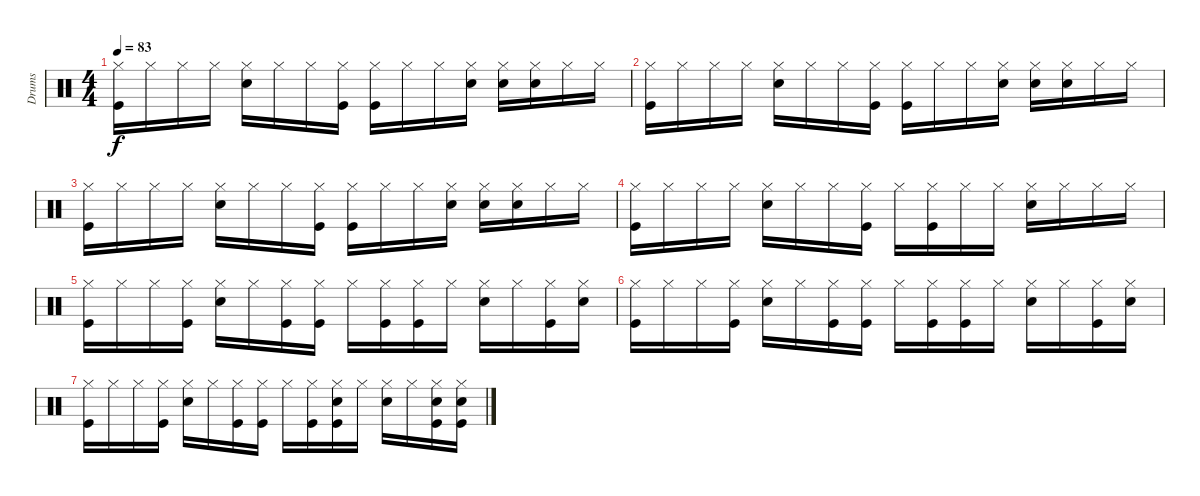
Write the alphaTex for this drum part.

\track ("Drums" "Drums") {instrument percussion}
\staff {score}
\articulation defaults
\ts (4 4)
\tempo 83
\clef neutral
\ks c
("Hi-Hat (closed)" "Kick (hit)").16{dy f} "Hi-Hat (closed)".16 "Hi-Hat (closed)".16 "Hi-Hat (closed)".16 ("Hi-Hat (closed)" "Snare (hit) 2").16 "Hi-Hat (closed)".16 "Hi-Hat (closed)".16 ("Hi-Hat (closed)" "Kick (hit)").16 ("Hi-Hat (closed)" "Kick (hit)").16 "Hi-Hat (closed)".16 "Hi-Hat (closed)".16 ("Hand Clap (hit)" "Hi-Hat (closed)").16 ("Hi-Hat (closed)" "Snare (hit) 2").16 ("Hand Clap (hit)" "Hi-Hat (closed)").16 "Hi-Hat (closed)".16 "Hi-Hat (closed)".16 |
("Hi-Hat (closed)" "Kick (hit)").16 "Hi-Hat (closed)".16 "Hi-Hat (closed)".16 "Hi-Hat (closed)".16 ("Hi-Hat (closed)" "Snare (hit) 2").16 "Hi-Hat (closed)".16 "Hi-Hat (closed)".16 ("Hi-Hat (closed)" "Kick (hit)").16 ("Hi-Hat (closed)" "Kick (hit)").16 "Hi-Hat (closed)".16 "Hi-Hat (closed)".16 ("Hand Clap (hit)" "Hi-Hat (closed)").16 ("Hi-Hat (closed)" "Snare (hit) 2").16 ("Hand Clap (hit)" "Hi-Hat (closed)").16 "Hi-Hat (closed)".16 "Hi-Hat (closed)".16 |
("Hi-Hat (closed)" "Kick (hit)").16 "Hi-Hat (closed)".16 "Hi-Hat (closed)".16 "Hi-Hat (closed)".16 ("Hi-Hat (closed)" "Snare (hit) 2").16 "Hi-Hat (closed)".16 "Hi-Hat (closed)".16 ("Hi-Hat (closed)" "Kick (hit)").16 ("Hi-Hat (closed)" "Kick (hit)").16 "Hi-Hat (closed)".16 "Hi-Hat (closed)".16 ("Hand Clap (hit)" "Hi-Hat (closed)").16 ("Hi-Hat (closed)" "Snare (hit) 2").16 ("Hand Clap (hit)" "Hi-Hat (closed)").16 "Hi-Hat (closed)".16 "Hi-Hat (closed)".16 |
("Hi-Hat (closed)" "Kick (hit)").16 "Hi-Hat (closed)".16 "Hi-Hat (closed)".16 "Hi-Hat (closed)".16 ("Hi-Hat (closed)" "Snare (hit) 2").16 "Hi-Hat (closed)".16 "Hi-Hat (closed)".16 ("Hi-Hat (closed)" "Kick (hit)").16 "Hi-Hat (closed)".16 ("Hi-Hat (closed)" "Kick (hit)").16 "Hi-Hat (closed)".16 "Hi-Hat (closed)".16 ("Hi-Hat (closed)" "Snare (hit) 2").16 "Hi-Hat (closed)".16 "Hi-Hat (closed)".16 "Hi-Hat (closed)".16 |
("Hi-Hat (closed)" "Kick (hit)").16 "Hi-Hat (closed)".16 "Hi-Hat (closed)".16 ("Hi-Hat (closed)" "Kick (hit)").16 ("Hi-Hat (closed)" "Snare (hit) 2").16 "Hi-Hat (closed)".16 ("Hi-Hat (closed)" "Kick (hit)").16 ("Hi-Hat (closed)" "Kick (hit)").16 "Hi-Hat (closed)".16 ("Hi-Hat (closed)" "Kick (hit)").16 ("Hi-Hat (closed)" "Kick (hit)").16 "Hi-Hat (closed)".16 ("Hi-Hat (closed)" "Snare (hit) 2").16 "Hi-Hat (closed)".16 ("Hi-Hat (closed)" "Kick (hit)").16 ("Hi-Hat (closed)" "Snare (hit) 2").16 |
("Hi-Hat (closed)" "Kick (hit)").16 "Hi-Hat (closed)".16 "Hi-Hat (closed)".16 ("Hi-Hat (closed)" "Kick (hit)").16 ("Hi-Hat (closed)" "Snare (hit) 2").16 "Hi-Hat (closed)".16 ("Hi-Hat (closed)" "Kick (hit)").16 ("Hi-Hat (closed)" "Kick (hit)").16 "Hi-Hat (closed)".16 ("Hi-Hat (closed)" "Kick (hit)").16 ("Hi-Hat (closed)" "Kick (hit)").16 "Hi-Hat (closed)".16 ("Hi-Hat (closed)" "Snare (hit) 2").16 "Hi-Hat (closed)".16 ("Hi-Hat (closed)" "Kick (hit)").16 ("Hi-Hat (closed)" "Snare (hit) 2").16 |
("Hi-Hat (closed)" "Kick (hit)").16 "Hi-Hat (closed)".16 "Hi-Hat (closed)".16 ("Hi-Hat (closed)" "Kick (hit)").16 ("Hi-Hat (closed)" "Snare (hit) 2").16 "Hi-Hat (closed)".16 ("Hi-Hat (closed)" "Kick (hit)").16 ("Hi-Hat (closed)" "Kick (hit)").16 "Hi-Hat (closed)".16 ("Hi-Hat (closed)" "Kick (hit)").16 ("Hand Clap (hit)" "Hi-Hat (closed)" "Kick (hit)").16 "Hi-Hat (closed)".16 ("Hand Clap (hit)" "Hi-Hat (closed)").16 "Hi-Hat (closed)".16 ("Hi-Hat (closed)" "Snare (hit) 2" "Kick (hit)").16 ("Hi-Hat (closed)" "Snare (hit) 2" "Kick (hit)").16
